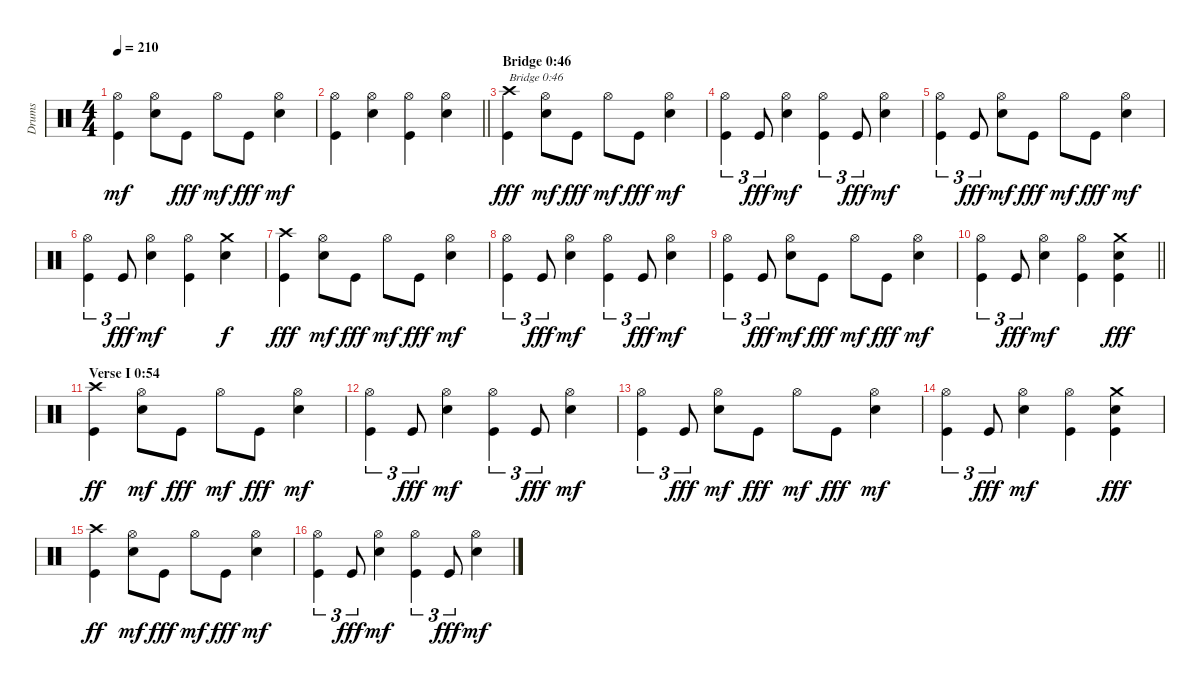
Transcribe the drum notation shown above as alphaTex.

\track ("Drums" "Drums") {instrument percussion}
\staff {score}
\articulation defaults
\ts (4 4)
\tempo 210
\clef neutral
\ks c
("Kick (hit)" "Hi-Hat (open)").4{dy mf} ("Electric Snare (hit)" "Hi-Hat (open)").8 "Kick (hit)".8{dy fff} "Hi-Hat (open)".8{dy mf} "Kick (hit)".8{dy fff} ("Electric Snare (hit)" "Hi-Hat (open)").4{dy mf} |
\barLineRight lightlight
("Kick (hit)" "Hi-Hat (open)").4 ("Electric Snare (hit)" "Hi-Hat (open)").4 ("Kick (hit)" "Hi-Hat (open)").4 ("Electric Snare (hit)" "Hi-Hat (open)").4 |
\section ("" "Bridge 0:46")
("Kick (hit)" "Crash high (hit)").4{txt "Bridge 0:46" dy fff} ("Electric Snare (hit)" "Hi-Hat (open)").8{dy mf} "Kick (hit)".8{dy fff} "Hi-Hat (open)".8{dy mf} "Kick (hit)".8{dy fff} ("Electric Snare (hit)" "Hi-Hat (open)").4{dy mf} |
("Kick (hit)" "Hi-Hat (open)").4{tu (3 2)} "Kick (hit)".8{tu (3 2) dy fff} ("Electric Snare (hit)" "Hi-Hat (open)").4{dy mf} ("Kick (hit)" "Hi-Hat (open)").4{tu (3 2)} "Kick (hit)".8{tu (3 2) dy fff} ("Electric Snare (hit)" "Hi-Hat (open)").4{dy mf} |
("Kick (hit)" "Hi-Hat (open)").4{tu (3 2)} "Kick (hit)".8{tu (3 2) dy fff} ("Electric Snare (hit)" "Hi-Hat (open)").8{dy mf} "Kick (hit)".8{dy fff} "Hi-Hat (open)".8{dy mf} "Kick (hit)".8{dy fff} ("Electric Snare (hit)" "Hi-Hat (open)").4{dy mf} |
("Kick (hit)" "Hi-Hat (open)").4{tu (3 2)} "Kick (hit)".8{tu (3 2) dy fff} ("Electric Snare (hit)" "Hi-Hat (open)").4{dy mf} ("Kick (hit)" "Hi-Hat (open)").4 ("Electric Snare (hit)" "Crash medium (hit)").4{dy f} |
("Kick (hit)" "Crash high (hit)").4{dy fff} ("Electric Snare (hit)" "Hi-Hat (open)").8{dy mf} "Kick (hit)".8{dy fff} "Hi-Hat (open)".8{dy mf} "Kick (hit)".8{dy fff} ("Electric Snare (hit)" "Hi-Hat (open)").4{dy mf} |
("Kick (hit)" "Hi-Hat (open)").4{tu (3 2)} "Kick (hit)".8{tu (3 2) dy fff} ("Electric Snare (hit)" "Hi-Hat (open)").4{dy mf} ("Kick (hit)" "Hi-Hat (open)").4{tu (3 2)} "Kick (hit)".8{tu (3 2) dy fff} ("Electric Snare (hit)" "Hi-Hat (open)").4{dy mf} |
("Kick (hit)" "Hi-Hat (open)").4{tu (3 2)} "Kick (hit)".8{tu (3 2) dy fff} ("Electric Snare (hit)" "Hi-Hat (open)").8{dy mf} "Kick (hit)".8{dy fff} "Hi-Hat (open)".8{dy mf} "Kick (hit)".8{dy fff} ("Electric Snare (hit)" "Hi-Hat (open)").4{dy mf} |
\barLineRight lightlight
("Kick (hit)" "Hi-Hat (open)").4{tu (3 2)} "Kick (hit)".8{tu (3 2) dy fff} ("Electric Snare (hit)" "Hi-Hat (open)").4{dy mf} ("Kick (hit)" "Hi-Hat (open)").4 ("Kick (hit)" "Electric Snare (hit)" "Crash medium (hit)").4{dy fff} |
\section ("" "Verse I 0:54")
("Kick (hit)" "Crash high (hit)").4{dy ff} ("Electric Snare (hit)" "Hi-Hat (open)").8{dy mf} "Kick (hit)".8{dy fff} "Hi-Hat (open)".8{dy mf} "Kick (hit)".8{dy fff} ("Electric Snare (hit)" "Hi-Hat (open)").4{dy mf} |
("Kick (hit)" "Hi-Hat (open)").4{tu (3 2)} "Kick (hit)".8{tu (3 2) dy fff} ("Electric Snare (hit)" "Hi-Hat (open)").4{dy mf} ("Kick (hit)" "Hi-Hat (open)").4{tu (3 2)} "Kick (hit)".8{tu (3 2) dy fff} ("Electric Snare (hit)" "Hi-Hat (open)").4{dy mf} |
("Kick (hit)" "Hi-Hat (open)").4{tu (3 2)} "Kick (hit)".8{tu (3 2) dy fff} ("Electric Snare (hit)" "Hi-Hat (open)").8{dy mf} "Kick (hit)".8{dy fff} "Hi-Hat (open)".8{dy mf} "Kick (hit)".8{dy fff} ("Electric Snare (hit)" "Hi-Hat (open)").4{dy mf} |
("Kick (hit)" "Hi-Hat (open)").4{tu (3 2)} "Kick (hit)".8{tu (3 2) dy fff} ("Electric Snare (hit)" "Hi-Hat (open)").4{dy mf} ("Kick (hit)" "Hi-Hat (open)").4 ("Kick (hit)" "Electric Snare (hit)" "Crash medium (hit)").4{dy fff} |
("Kick (hit)" "Crash high (hit)").4{dy ff} ("Electric Snare (hit)" "Hi-Hat (open)").8{dy mf} "Kick (hit)".8{dy fff} "Hi-Hat (open)".8{dy mf} "Kick (hit)".8{dy fff} ("Electric Snare (hit)" "Hi-Hat (open)").4{dy mf} |
("Kick (hit)" "Hi-Hat (open)").4{tu (3 2)} "Kick (hit)".8{tu (3 2) dy fff} ("Electric Snare (hit)" "Hi-Hat (open)").4{dy mf} ("Kick (hit)" "Hi-Hat (open)").4{tu (3 2)} "Kick (hit)".8{tu (3 2) dy fff} ("Electric Snare (hit)" "Hi-Hat (open)").4{dy mf}
